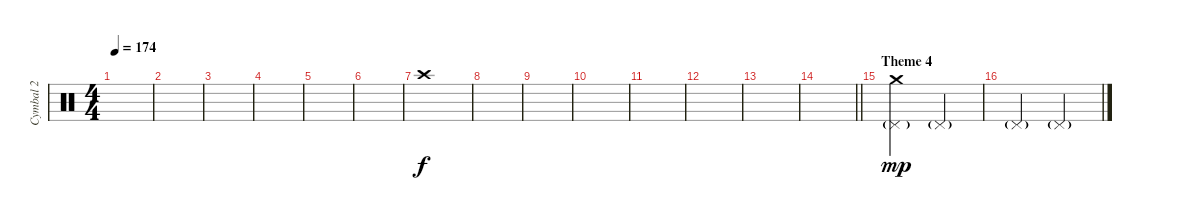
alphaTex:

\track ("Cymbal 2" "Cymbal 2") {instrument percussion}
\staff {score}
\articulation defaults
\ts (4 4)
\tempo 174
\clef neutral
\ks c
|
|
|
|
|
|
"Crash high (hit)".1 |
|
|
|
|
|
|
\barLineRight lightlight
|
\section ("" "Theme 4")
("Pedal Hi-Hat (hit)"{g} "Crash medium (hit)").2{dy mp} "Pedal Hi-Hat (hit)"{g}.2 |
"Pedal Hi-Hat (hit)"{g}.2 "Pedal Hi-Hat (hit)"{g}.2
